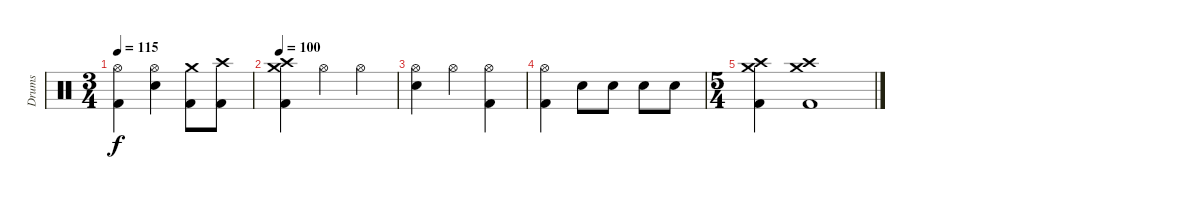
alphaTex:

\track ("Drums" "Drums") {instrument percussion}
\staff {score}
\articulation defaults
\ts (3 4)
\tempo 115
\clef neutral
\ks c
("Hi-Hat (open)" "Kick (hit) 2").4{dy f} ("Hi-Hat (open)" "Electric Snare (hit)").4 ("Crash medium (hit)" "Kick (hit) 2").8 ("Crash high (hit)" "Kick (hit) 2").8 |
\tempo 100
("Crash high (hit)" "Crash medium (hit)" "Kick (hit) 2").4 "Hi-Hat (open)".4 "Hi-Hat (open)".4 |
("Hi-Hat (open)" "Electric Snare (hit)").4 "Hi-Hat (open)".4 ("Hi-Hat (open)" "Kick (hit) 2").4 |
("Hi-Hat (open)" "Kick (hit) 2").4 "Electric Snare (hit)".8 "Electric Snare (hit)".8 "Electric Snare (hit)".8 "Electric Snare (hit)".8 |
\ts (5 4)
("Crash high (hit)" "Crash medium (hit)" "Kick (hit) 2").4 ("Crash medium (hit)" "Crash high (hit)" "Kick (hit) 2").1
